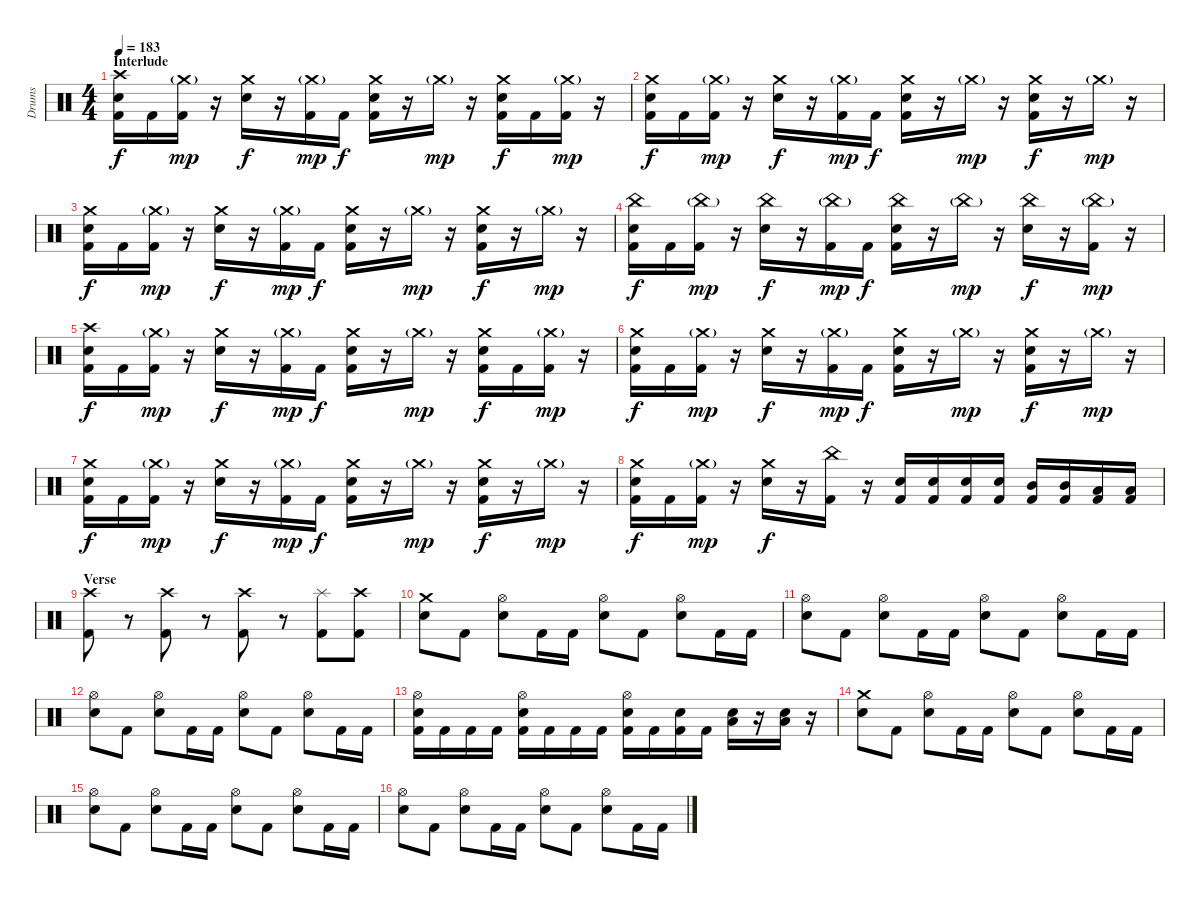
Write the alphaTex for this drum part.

\track ("Drums" "Drums") {instrument percussion}
\staff {score}
\articulation defaults
\ts (4 4)
\section ("" "Interlude")
\tempo 183
\clef neutral
\ks c
("Crash high (hit)" "Electric Snare (hit)" "Kick (hit) 2").16{dy f} "Kick (hit) 2".16 ("Crash medium (hit)"{g} "Kick (hit) 2").16{dy mp} r.16 ("Crash medium (hit)" "Electric Snare (hit)").16{dy f} r.16 ("Crash medium (hit)"{g} "Kick (hit) 2").16{dy mp} "Kick (hit) 2".16{dy f} ("Crash medium (hit)" "Electric Snare (hit)" "Kick (hit) 2").16 r.16 "Crash medium (hit)"{g}.16{dy mp} r.16 ("Crash medium (hit)" "Electric Snare (hit)" "Kick (hit) 2").16{dy f} "Kick (hit) 2".16 ("Crash medium (hit)"{g} "Kick (hit) 2").16{dy mp} r.16 |
("Crash medium (hit)" "Electric Snare (hit)" "Kick (hit) 2").16{dy f} "Kick (hit) 2".16 ("Crash medium (hit)"{g} "Kick (hit) 2").16{dy mp} r.16 ("Crash medium (hit)" "Electric Snare (hit)").16{dy f} r.16 ("Crash medium (hit)"{g} "Kick (hit) 2").16{dy mp} "Kick (hit) 2".16{dy f} ("Crash medium (hit)" "Electric Snare (hit)" "Kick (hit) 2").16 r.16 "Crash medium (hit)"{g}.16{dy mp} r.16 ("Crash medium (hit)" "Electric Snare (hit)" "Kick (hit) 2").16{dy f} r.16 "Crash medium (hit)"{g}.16{dy mp} r.16 |
("Crash medium (hit)" "Electric Snare (hit)" "Kick (hit) 2").16{dy f} "Kick (hit) 2".16 ("Crash medium (hit)"{g} "Kick (hit) 2").16{dy mp} r.16 ("Crash medium (hit)" "Electric Snare (hit)").16{dy f} r.16 ("Crash medium (hit)"{g} "Kick (hit) 2").16{dy mp} "Kick (hit) 2".16{dy f} ("Crash medium (hit)" "Electric Snare (hit)" "Kick (hit) 2").16 r.16 "Crash medium (hit)"{g}.16{dy mp} r.16 ("Crash medium (hit)" "Electric Snare (hit)" "Kick (hit) 2").16{dy f} r.16 "Crash medium (hit)"{g}.16{dy mp} r.16 |
("China (hit)" "Electric Snare (hit)" "Kick (hit) 2").16{dy f} "Kick (hit) 2".16 ("China (hit)"{g} "Kick (hit) 2").16{dy mp} r.16 ("China (hit)" "Electric Snare (hit)").16{dy f} r.16 ("China (hit)"{g} "Kick (hit) 2").16{dy mp} "Kick (hit) 2".16{dy f} ("China (hit)" "Electric Snare (hit)" "Kick (hit) 2").16 r.16 "China (hit)"{g}.16{dy mp} r.16 ("China (hit)" "Electric Snare (hit)").16{dy f} r.16 ("China (hit)"{g} "Kick (hit) 2").16{dy mp} r.16 |
("Crash high (hit)" "Electric Snare (hit)" "Kick (hit) 2").16{dy f} "Kick (hit) 2".16 ("Crash medium (hit)"{g} "Kick (hit) 2").16{dy mp} r.16 ("Crash medium (hit)" "Electric Snare (hit)").16{dy f} r.16 ("Crash medium (hit)"{g} "Kick (hit) 2").16{dy mp} "Kick (hit) 2".16{dy f} ("Crash medium (hit)" "Electric Snare (hit)" "Kick (hit) 2").16 r.16 "Crash medium (hit)"{g}.16{dy mp} r.16 ("Crash medium (hit)" "Electric Snare (hit)" "Kick (hit) 2").16{dy f} "Kick (hit) 2".16 ("Crash medium (hit)"{g} "Kick (hit) 2").16{dy mp} r.16 |
("Crash medium (hit)" "Electric Snare (hit)" "Kick (hit) 2").16{dy f} "Kick (hit) 2".16 ("Crash medium (hit)"{g} "Kick (hit) 2").16{dy mp} r.16 ("Crash medium (hit)" "Electric Snare (hit)").16{dy f} r.16 ("Crash medium (hit)"{g} "Kick (hit) 2").16{dy mp} "Kick (hit) 2".16{dy f} ("Crash medium (hit)" "Electric Snare (hit)" "Kick (hit) 2").16 r.16 "Crash medium (hit)"{g}.16{dy mp} r.16 ("Crash medium (hit)" "Electric Snare (hit)" "Kick (hit) 2").16{dy f} r.16 "Crash medium (hit)"{g}.16{dy mp} r.16 |
("Crash medium (hit)" "Electric Snare (hit)" "Kick (hit) 2").16{dy f} "Kick (hit) 2".16 ("Crash medium (hit)"{g} "Kick (hit) 2").16{dy mp} r.16 ("Crash medium (hit)" "Electric Snare (hit)").16{dy f} r.16 ("Crash medium (hit)"{g} "Kick (hit) 2").16{dy mp} "Kick (hit) 2".16{dy f} ("Crash medium (hit)" "Electric Snare (hit)" "Kick (hit) 2").16 r.16 "Crash medium (hit)"{g}.16{dy mp} r.16 ("Crash medium (hit)" "Electric Snare (hit)" "Kick (hit) 2").16{dy f} r.16 "Crash medium (hit)"{g}.16{dy mp} r.16 |
("Crash medium (hit)" "Electric Snare (hit)" "Kick (hit) 2").16{dy f} "Kick (hit) 2".16 ("Crash medium (hit)"{g} "Kick (hit) 2").16{dy mp} r.16 ("Crash medium (hit)" "Electric Snare (hit)").16{dy f} r.16 ("China (hit)" "Kick (hit) 2").16 r.16 ("Electric Snare (hit)" "Kick (hit) 2").16 ("Electric Snare (hit)" "Kick (hit) 2").16 ("Electric Snare (hit)" "Kick (hit) 2").16 ("Electric Snare (hit)" "Kick (hit) 2").16 ("Mid Tom (hit)" "Kick (hit) 2").16 ("Mid Tom (hit)" "Kick (hit) 2").16 ("Low Tom (hit)" "Kick (hit) 2").16 ("Low Tom (hit)" "Kick (hit) 2").16 |
\section ("" "Verse")
("Crash high (hit)" "Kick (hit) 2").8 r.8{volume 0} ("Crash high (hit)" "Kick (hit) 2").8{volume 16} r.8{volume 0} ("Crash high (hit)" "Kick (hit) 2").8{volume 16} r.8{volume 0} ("Splash (hit)" "Kick (hit) 2").8{volume 16} ("Crash high (hit)" "Kick (hit) 2").8 |
("Crash medium (hit)" "Electric Snare (hit)").8 "Kick (hit) 2".8 ("Hi-Hat (open)" "Electric Snare (hit)").8 "Kick (hit) 2".16 "Kick (hit) 2".16 ("Hi-Hat (open)" "Electric Snare (hit)").8 "Kick (hit) 2".8 ("Hi-Hat (open)" "Electric Snare (hit)").8 "Kick (hit) 2".16 "Kick (hit) 2".16 |
("Hi-Hat (open)" "Electric Snare (hit)").8 "Kick (hit) 2".8 ("Hi-Hat (open)" "Electric Snare (hit)").8 "Kick (hit) 2".16 "Kick (hit) 2".16 ("Hi-Hat (open)" "Electric Snare (hit)").8 "Kick (hit) 2".8 ("Hi-Hat (open)" "Electric Snare (hit)").8 "Kick (hit) 2".16 "Kick (hit) 2".16 |
("Hi-Hat (open)" "Electric Snare (hit)").8 "Kick (hit) 2".8 ("Hi-Hat (open)" "Electric Snare (hit)").8 "Kick (hit) 2".16 "Kick (hit) 2".16 ("Hi-Hat (open)" "Electric Snare (hit)").8 "Kick (hit) 2".8 ("Hi-Hat (open)" "Electric Snare (hit)").8 "Kick (hit) 2".16 "Kick (hit) 2".16 |
("Hi-Hat (open)" "Electric Snare (hit)" "Kick (hit) 2").16 "Kick (hit) 2".16 "Kick (hit) 2".16 "Kick (hit) 2".16 ("Hi-Hat (open)" "Electric Snare (hit)" "Kick (hit) 2").16 "Kick (hit) 2".16 "Kick (hit) 2".16 "Kick (hit) 2".16 ("Hi-Hat (open)" "Electric Snare (hit)" "Kick (hit) 2").16 "Kick (hit) 2".16 ("Electric Snare (hit)" "Kick (hit) 2").16 "Kick (hit) 2".16 ("Electric Snare (hit)" "Low Tom (hit)").16 r.16 ("Electric Snare (hit)" "Low Tom (hit)").16 r.16 |
("Crash medium (hit)" "Electric Snare (hit)").8 "Kick (hit) 2".8 ("Hi-Hat (open)" "Electric Snare (hit)").8 "Kick (hit) 2".16 "Kick (hit) 2".16 ("Hi-Hat (open)" "Electric Snare (hit)").8 "Kick (hit) 2".8 ("Hi-Hat (open)" "Electric Snare (hit)").8 "Kick (hit) 2".16 "Kick (hit) 2".16 |
("Hi-Hat (open)" "Electric Snare (hit)").8 "Kick (hit) 2".8 ("Hi-Hat (open)" "Electric Snare (hit)").8 "Kick (hit) 2".16 "Kick (hit) 2".16 ("Hi-Hat (open)" "Electric Snare (hit)").8 "Kick (hit) 2".8 ("Hi-Hat (open)" "Electric Snare (hit)").8 "Kick (hit) 2".16 "Kick (hit) 2".16 |
("Hi-Hat (open)" "Electric Snare (hit)").8 "Kick (hit) 2".8 ("Hi-Hat (open)" "Electric Snare (hit)").8 "Kick (hit) 2".16 "Kick (hit) 2".16 ("Hi-Hat (open)" "Electric Snare (hit)").8 "Kick (hit) 2".8 ("Hi-Hat (open)" "Electric Snare (hit)").8 "Kick (hit) 2".16 "Kick (hit) 2".16
